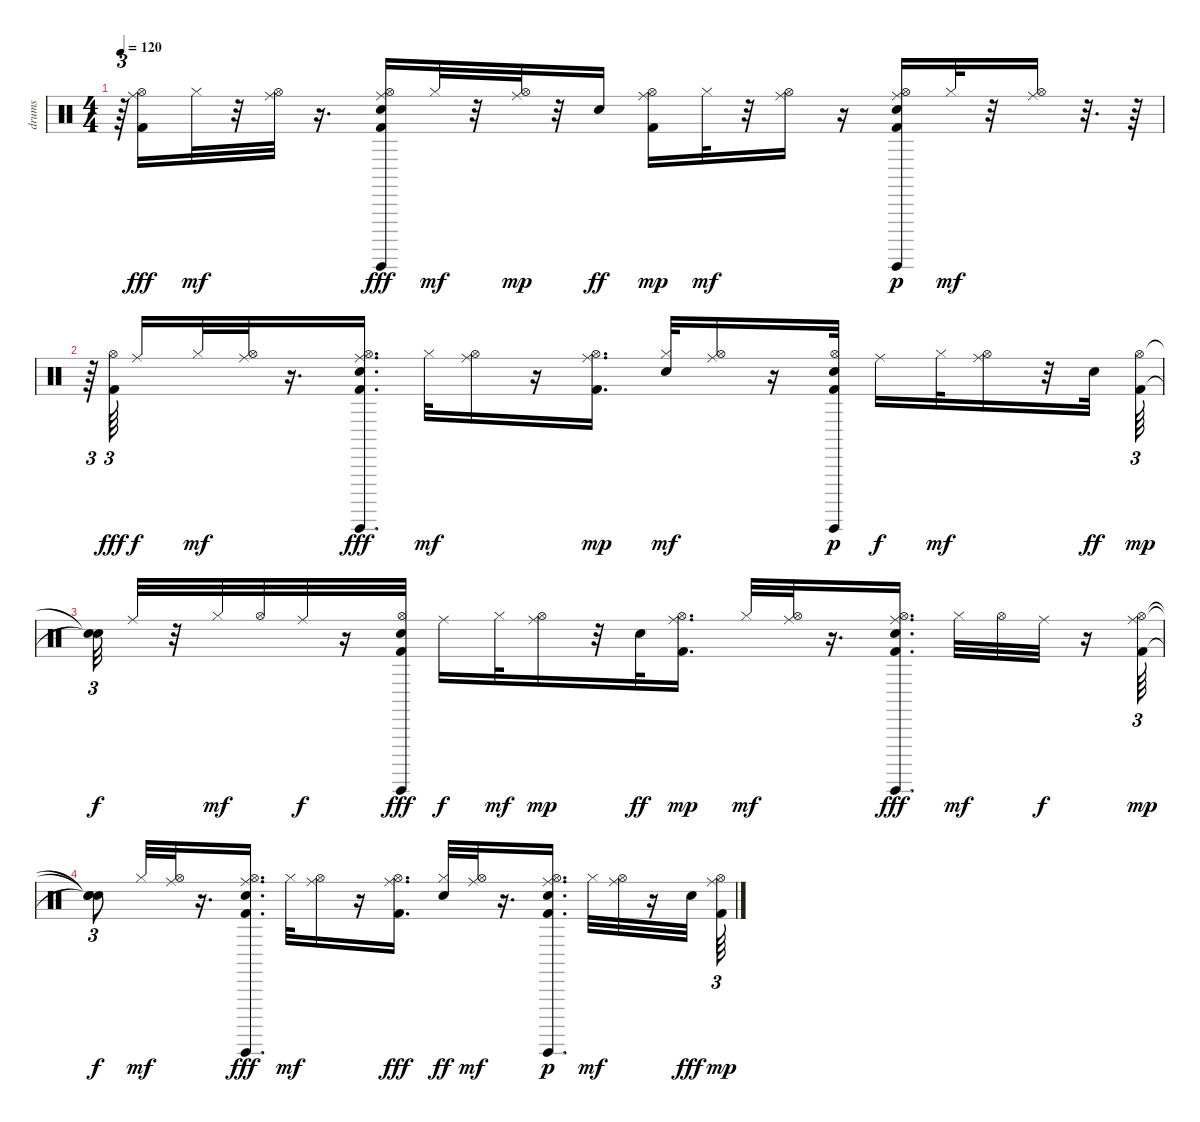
\track ("drums                               " "drums     ") {instrument percussion}
\staff {score}
\articulation defaults
\ts (4 4)
\tempo 120
\clef neutral
\ks c
r.64{tu (3 2) dy fff} ("Hi-Hat (open)" "Ride (middle)" "Kick (hit) 2").16 "Hi-Hat (closed)".32{dy mf} r.32 ("Ride (middle)" "Hi-Hat (open)").32 r.16{d} ("Hi-Hat (open)" "Electric Snare (hit)" "Kick (hit) 2" "Guiro (hit)" "Ride (middle)").16{dy fff} "Hi-Hat (closed)".32{dy mf} r.32 ("Hi-Hat (open)" "Ride (middle)").32{dy mp} r.32 "Electric Snare (hit)".16{dy ff} ("Kick (hit) 2" "Hi-Hat (open)" "Ride (middle)").16{dy mp} "Hi-Hat (closed)".32{dy mf} r.32 ("Ride (middle)" "Hi-Hat (open)").16 r.16 ("Guiro (hit)" "Electric Snare (hit)" "Kick (hit) 2" "Hi-Hat (open)" "Ride (middle)").16{dy p} "Hi-Hat (closed)".32{dy mf} r.32 ("Hi-Hat (open)" "Ride (middle)").16 r.32{d} r.64 |
r.64{tu (3 2)} ("Hi-Hat (open)" "Kick (hit) 2").64{tu (3 2) dy fff beam splitsecondary} "Ride (middle)".16{dy f} "Hi-Hat (closed)".32{dy mf} ("Hi-Hat (open)" "Ride (middle)").32 r.16{d} ("Electric Snare (hit)" "Hi-Hat (open)" "Kick (hit) 2" "Guiro (hit)" "Ride (middle)").16{d dy fff} "Hi-Hat (closed)".32{dy mf} ("Hi-Hat (open)" "Ride (middle)").16 r.16 ("Ride (middle)" "Kick (hit) 2" "Hi-Hat (open)").16{d dy mp} ("Electric Snare (hit)" "Hi-Hat (closed)").32{dy mf} ("Hi-Hat (open)" "Ride (middle)").16 r.16 ("Guiro (hit)" "Kick (hit) 2" "Electric Snare (hit)" "Hi-Hat (open)").32{dy p} "Ride (middle)".16{dy f} "Hi-Hat (closed)".32{dy mf} ("Hi-Hat (open)" "Ride (middle)").16 r.32 "Electric Snare (hit)".32{dy ff} ("Kick (hit) 2" "Hi-Hat (open)").64{tu (3 2) dy mp} |
("Snare (hit)"{t} "Snare (hit)"{t}).32{tu (3 2) dy f} "Ride (middle)".32 r.32 "Hi-Hat (closed)".32{dy mf} "Hi-Hat (open)".32 "Ride (middle)".32{dy f} r.16 ("Guiro (hit)" "Electric Snare (hit)" "Hi-Hat (open)" "Kick (hit) 2").32{dy fff} "Ride (middle)".16{dy f} "Hi-Hat (closed)".32{dy mf} ("Hi-Hat (open)" "Ride (middle)").16{dy mp} r.32 "Electric Snare (hit)".32{dy ff} ("Ride (middle)" "Kick (hit) 2" "Hi-Hat (open)").16{d dy mp} "Hi-Hat (closed)".32{dy mf} ("Hi-Hat (open)" "Ride (middle)").32 r.16{d} ("Electric Snare (hit)" "Guiro (hit)" "Hi-Hat (open)" "Kick (hit) 2" "Ride (middle)").16{d dy fff} "Hi-Hat (closed)".32{dy mf} "Hi-Hat (open)".32 "Ride (middle)".32{dy f} r.16 ("Kick (hit) 2" "Hi-Hat (open)" "Ride (middle)").64{tu (3 2) dy mp} |
("Snare (hit)"{t} "Snare (hit)"{t} "Snare (hit)"{t}).8{tu (3 2) dy f} "Hi-Hat (closed)".32{dy mf} ("Ride (middle)" "Hi-Hat (open)").32 r.16{d} ("Electric Snare (hit)" "Hi-Hat (open)" "Kick (hit) 2" "Guiro (hit)" "Ride (middle)").16{d dy fff} "Hi-Hat (closed)".32{dy mf} ("Ride (middle)" "Hi-Hat (open)").16 r.16 ("Ride (middle)" "Hi-Hat (open)" "Kick (hit) 2").16{d dy fff} ("Hi-Hat (closed)" "Electric Snare (hit)").32{dy ff} ("Ride (middle)" "Hi-Hat (open)").32{dy mf} r.16{d} ("Ride (middle)" "Guiro (hit)" "Kick (hit) 2" "Electric Snare (hit)" "Hi-Hat (open)").16{d dy p} "Hi-Hat (closed)".32{dy mf} ("Ride (middle)" "Hi-Hat (open)").32 r.16 "Electric Snare (hit)".32{dy fff} ("Kick (hit) 2" "Ride (middle)" "Hi-Hat (open)").64{tu (3 2) dy mp}
